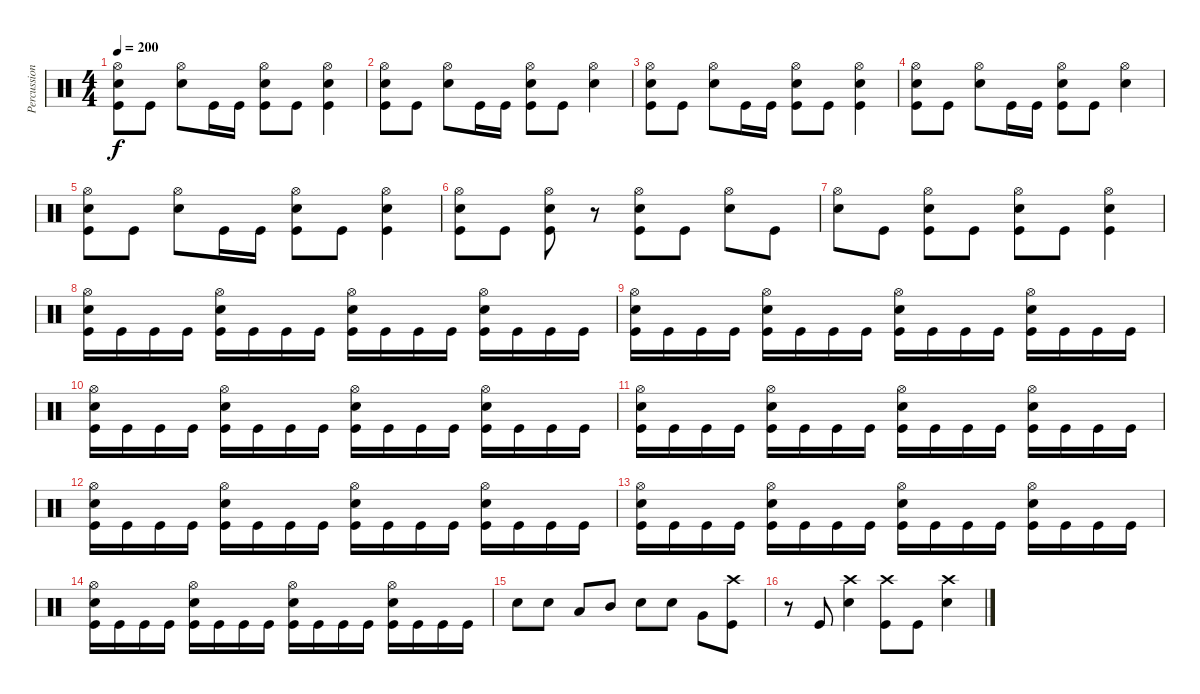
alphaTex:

\track ("Percussion" "Percussion") {instrument percussion}
\staff {score}
\articulation defaults
\ts (4 4)
\tempo 200
\clef neutral
\ks c
("Hi-Hat (open)" "Snare (hit) 2" "Kick (hit)").8{dy f} "Kick (hit)".8 ("Hi-Hat (open)" "Snare (hit) 2").8 "Kick (hit)".16 "Kick (hit)".16 ("Hi-Hat (open)" "Snare (hit) 2" "Kick (hit)").8 "Kick (hit)".8 ("Hi-Hat (open)" "Snare (hit) 2" "Kick (hit)").4 |
("Hi-Hat (open)" "Snare (hit) 2" "Kick (hit)").8 "Kick (hit)".8 ("Hi-Hat (open)" "Snare (hit) 2").8 "Kick (hit)".16 "Kick (hit)".16 ("Hi-Hat (open)" "Snare (hit) 2" "Kick (hit)").8 "Kick (hit)".8 ("Hi-Hat (open)" "Snare (hit) 2").4 |
("Hi-Hat (open)" "Snare (hit) 2" "Kick (hit)").8 "Kick (hit)".8 ("Hi-Hat (open)" "Snare (hit) 2").8 "Kick (hit)".16 "Kick (hit)".16 ("Hi-Hat (open)" "Snare (hit) 2" "Kick (hit)").8 "Kick (hit)".8 ("Hi-Hat (open)" "Snare (hit) 2" "Kick (hit)").4 |
("Hi-Hat (open)" "Snare (hit) 2" "Kick (hit)").8 "Kick (hit)".8 ("Hi-Hat (open)" "Snare (hit) 2").8 "Kick (hit)".16 "Kick (hit)".16 ("Hi-Hat (open)" "Snare (hit) 2" "Kick (hit)").8 "Kick (hit)".8 ("Hi-Hat (open)" "Snare (hit) 2").4 |
("Hi-Hat (open)" "Snare (hit) 2" "Kick (hit)").8 "Kick (hit)".8 ("Hi-Hat (open)" "Snare (hit) 2").8 "Kick (hit)".16 "Kick (hit)".16 ("Hi-Hat (open)" "Snare (hit) 2" "Kick (hit)").8 "Kick (hit)".8 ("Hi-Hat (open)" "Snare (hit) 2" "Kick (hit)").4 |
("Hi-Hat (open)" "Snare (hit) 2" "Kick (hit)").8 "Kick (hit)".8 ("Hi-Hat (open)" "Snare (hit) 2" "Kick (hit)").8 r.8 ("Hi-Hat (open)" "Snare (hit) 2" "Kick (hit)").8 "Kick (hit)".8 ("Hi-Hat (open)" "Snare (hit) 2").8 "Kick (hit)".8 |
("Hi-Hat (open)" "Snare (hit) 2").8 "Kick (hit)".8 ("Hi-Hat (open)" "Snare (hit) 2" "Kick (hit)").8 "Kick (hit)".8 ("Hi-Hat (open)" "Snare (hit) 2" "Kick (hit)").8 "Kick (hit)".8 ("Hi-Hat (open)" "Snare (hit) 2" "Kick (hit)").4 |
("Hi-Hat (open)" "Snare (hit) 2" "Kick (hit)").16 "Kick (hit)".16 "Kick (hit)".16 "Kick (hit)".16 ("Hi-Hat (open)" "Snare (hit) 2" "Kick (hit)").16 "Kick (hit)".16 "Kick (hit)".16 "Kick (hit)".16 ("Hi-Hat (open)" "Snare (hit) 2" "Kick (hit)").16 "Kick (hit)".16 "Kick (hit)".16 "Kick (hit)".16 ("Hi-Hat (open)" "Snare (hit) 2" "Kick (hit)").16 "Kick (hit)".16 "Kick (hit)".16 "Kick (hit)".16 |
("Hi-Hat (open)" "Snare (hit) 2" "Kick (hit)").16 "Kick (hit)".16 "Kick (hit)".16 "Kick (hit)".16 ("Hi-Hat (open)" "Snare (hit) 2" "Kick (hit)").16 "Kick (hit)".16 "Kick (hit)".16 "Kick (hit)".16 ("Hi-Hat (open)" "Snare (hit) 2" "Kick (hit)").16 "Kick (hit)".16 "Kick (hit)".16 "Kick (hit)".16 ("Hi-Hat (open)" "Snare (hit) 2" "Kick (hit)").16 "Kick (hit)".16 "Kick (hit)".16 "Kick (hit)".16 |
("Hi-Hat (open)" "Snare (hit) 2" "Kick (hit)").16 "Kick (hit)".16 "Kick (hit)".16 "Kick (hit)".16 ("Hi-Hat (open)" "Snare (hit) 2" "Kick (hit)").16 "Kick (hit)".16 "Kick (hit)".16 "Kick (hit)".16 ("Hi-Hat (open)" "Snare (hit) 2" "Kick (hit)").16 "Kick (hit)".16 "Kick (hit)".16 "Kick (hit)".16 ("Hi-Hat (open)" "Snare (hit) 2" "Kick (hit)").16 "Kick (hit)".16 "Kick (hit)".16 "Kick (hit)".16 |
("Hi-Hat (open)" "Snare (hit) 2" "Kick (hit)").16 "Kick (hit)".16 "Kick (hit)".16 "Kick (hit)".16 ("Hi-Hat (open)" "Snare (hit) 2" "Kick (hit)").16 "Kick (hit)".16 "Kick (hit)".16 "Kick (hit)".16 ("Hi-Hat (open)" "Snare (hit) 2" "Kick (hit)").16 "Kick (hit)".16 "Kick (hit)".16 "Kick (hit)".16 ("Hi-Hat (open)" "Snare (hit) 2" "Kick (hit)").16 "Kick (hit)".16 "Kick (hit)".16 "Kick (hit)".16 |
("Hi-Hat (open)" "Snare (hit) 2" "Kick (hit)").16 "Kick (hit)".16 "Kick (hit)".16 "Kick (hit)".16 ("Hi-Hat (open)" "Snare (hit) 2" "Kick (hit)").16 "Kick (hit)".16 "Kick (hit)".16 "Kick (hit)".16 ("Hi-Hat (open)" "Snare (hit) 2" "Kick (hit)").16 "Kick (hit)".16 "Kick (hit)".16 "Kick (hit)".16 ("Hi-Hat (open)" "Snare (hit) 2" "Kick (hit)").16 "Kick (hit)".16 "Kick (hit)".16 "Kick (hit)".16 |
("Hi-Hat (open)" "Snare (hit) 2" "Kick (hit)").16 "Kick (hit)".16 "Kick (hit)".16 "Kick (hit)".16 ("Hi-Hat (open)" "Snare (hit) 2" "Kick (hit)").16 "Kick (hit)".16 "Kick (hit)".16 "Kick (hit)".16 ("Hi-Hat (open)" "Snare (hit) 2" "Kick (hit)").16 "Kick (hit)".16 "Kick (hit)".16 "Kick (hit)".16 ("Hi-Hat (open)" "Snare (hit) 2" "Kick (hit)").16 "Kick (hit)".16 "Kick (hit)".16 "Kick (hit)".16 |
("Hi-Hat (open)" "Snare (hit) 2" "Kick (hit)").16 "Kick (hit)".16 "Kick (hit)".16 "Kick (hit)".16 ("Hi-Hat (open)" "Snare (hit) 2" "Kick (hit)").16 "Kick (hit)".16 "Kick (hit)".16 "Kick (hit)".16 ("Hi-Hat (open)" "Snare (hit) 2" "Kick (hit)").16 "Kick (hit)".16 "Kick (hit)".16 "Kick (hit)".16 ("Hi-Hat (open)" "Snare (hit) 2" "Kick (hit)").16 "Kick (hit)".16 "Kick (hit)".16 "Kick (hit)".16 |
"Snare (hit) 2".8 "Snare (hit) 2".8 "Low Tom (hit)".8 "Mid Tom (hit)".8 "Snare (hit) 2".8 "Snare (hit) 2".8 "Very Low Tom (hit)".8 ("Crash high (hit)" "Kick (hit)").8 |
r.8 "Kick (hit)".8 ("Crash high (hit)" "Snare (hit) 2").4 ("Crash high (hit)" "Kick (hit)").8 "Kick (hit)".8 ("Crash high (hit)" "Snare (hit) 2").4
